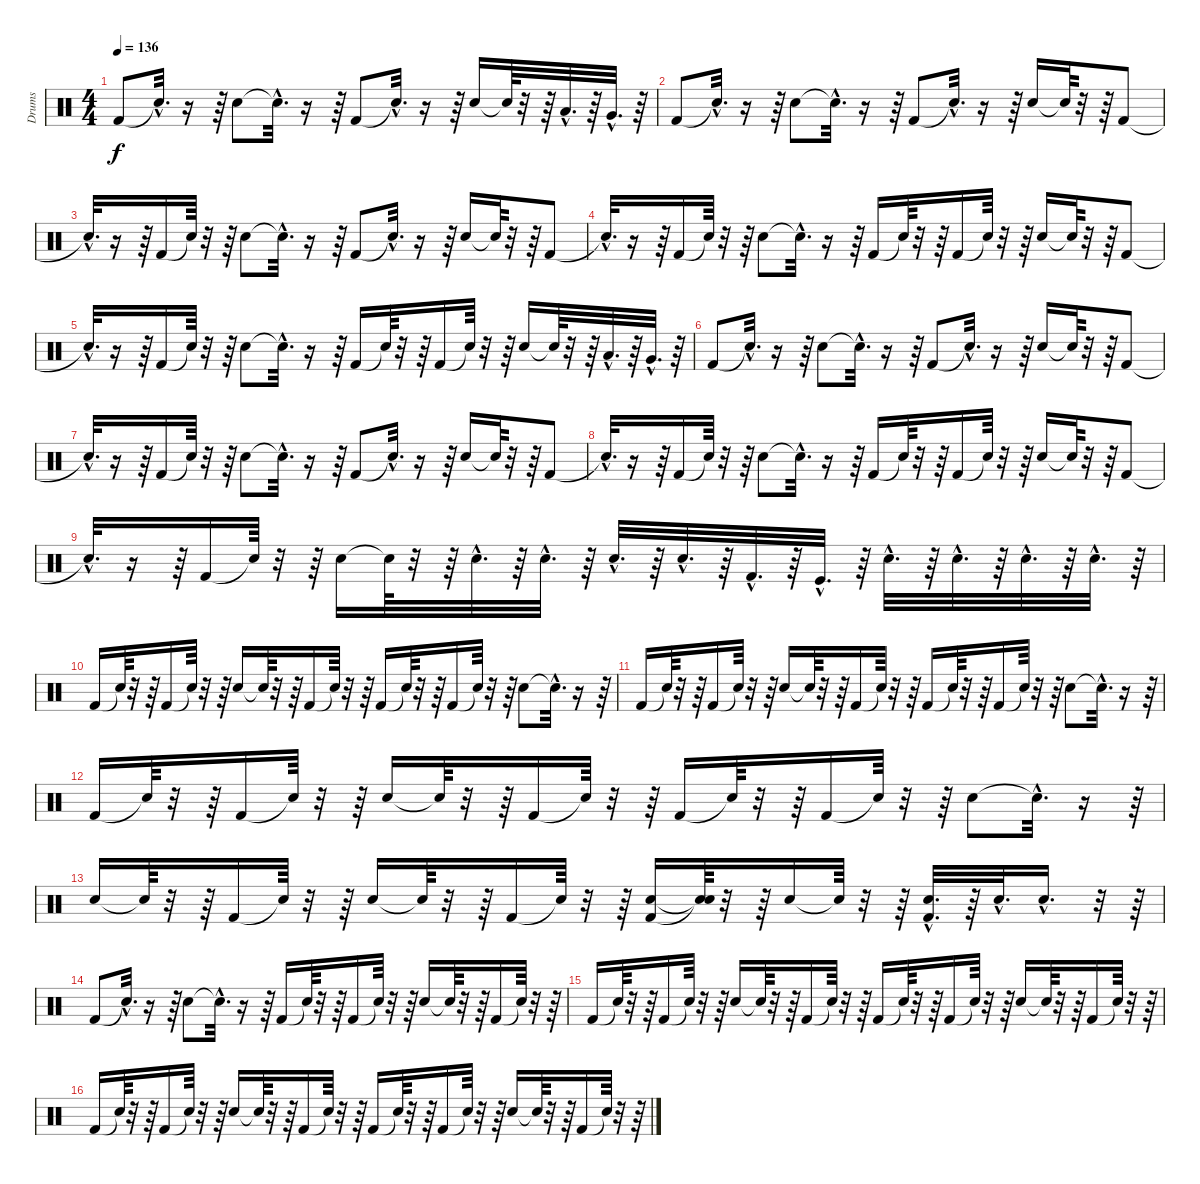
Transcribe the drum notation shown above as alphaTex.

\track ("Drums" "Drums") {instrument percussion}
\staff {score}
\articulation defaults
\ts (4 4)
\tempo 136
\clef neutral
\ks c "Kick (hit) 2".8{dy f} "Snare (hit)"{hac t}.32{d}
r.16 r.64 "Snare (hit) 2".8 "Snare (hit)"{hac t}.32{d} r.16 r.64 "Kick (hit) 2".8 "Snare (hit)"{hac t}.32{d} r.16 r.64 "Snare (hit) 2".16 "Snare (hit)"{t}.64 r.32 r.64 "Low Tom (hit)"{hac}.32{d} r.64 "Very Low Tom (hit)"{hac}.32{d} r.64 |
"Kick (hit) 2".8 "Snare (hit)"{hac t}.32{d} r.16 r.64 "Snare (hit) 2".8 "Snare (hit)"{hac t}.32{d} r.16 r.64 "Kick (hit) 2".8 "Snare (hit)"{hac t}.32{d} r.16 r.64 "Snare (hit) 2".16 "Snare (hit)"{t}.64 r.32 r.64 "Kick (hit) 2".8 |
"Snare (hit)"{hac t}.32{d} r.16 r.64 "Kick (hit) 2".16 "Snare (hit)"{t}.64 r.32 r.64 "Snare (hit) 2".8 "Snare (hit)"{hac t}.32{d} r.16 r.64 "Kick (hit) 2".8 "Snare (hit)"{hac t}.32{d} r.16 r.64 "Snare (hit) 2".16 "Snare (hit)"{t}.64 r.32 r.64 "Kick (hit) 2".8 |
"Snare (hit)"{hac t}.32{d} r.16 r.64 "Kick (hit) 2".16 "Snare (hit)"{t}.64 r.32 r.64 "Snare (hit) 2".8 "Snare (hit)"{hac t}.32{d} r.16 r.64 "Kick (hit) 2".16 "Snare (hit)"{t}.64 r.32 r.64 "Kick (hit) 2".16 "Snare (hit)"{t}.64 r.32 r.64 "Snare (hit) 2".16 "Snare (hit)"{t}.64 r.32 r.64 "Kick (hit) 2".8 |
"Snare (hit)"{hac t}.32{d} r.16 r.64 "Kick (hit) 2".16 "Snare (hit)"{t}.64 r.32 r.64 "Snare (hit) 2".8 "Snare (hit)"{hac t}.32{d} r.16 r.64 "Kick (hit) 2".16 "Snare (hit)"{t}.64 r.32 r.64 "Kick (hit) 2".16 "Snare (hit)"{t}.64 r.32 r.64 "Snare (hit) 2".16 "Snare (hit)"{t}.64 r.32 r.64 "Low Tom (hit)"{hac}.32{d} r.64 "Very Low Tom (hit)"{hac}.32{d} r.64 |
"Kick (hit) 2".8 "Snare (hit)"{hac t}.32{d} r.16 r.64 "Snare (hit) 2".8 "Snare (hit)"{hac t}.32{d} r.16 r.64 "Kick (hit) 2".8 "Snare (hit)"{hac t}.32{d} r.16 r.64 "Snare (hit) 2".16 "Snare (hit)"{t}.64 r.32 r.64 "Kick (hit) 2".8 |
"Snare (hit)"{hac t}.32{d} r.16 r.64 "Kick (hit) 2".16 "Snare (hit)"{t}.64 r.32 r.64 "Snare (hit) 2".8 "Snare (hit)"{hac t}.32{d} r.16 r.64 "Kick (hit) 2".8 "Snare (hit)"{hac t}.32{d} r.16 r.64 "Snare (hit) 2".16 "Snare (hit)"{t}.64 r.32 r.64 "Kick (hit) 2".8 |
"Snare (hit)"{hac t}.32{d} r.16 r.64 "Kick (hit) 2".16 "Snare (hit)"{t}.64 r.32 r.64 "Snare (hit) 2".8 "Snare (hit)"{hac t}.32{d} r.16 r.64 "Kick (hit) 2".16 "Snare (hit)"{t}.64 r.32 r.64 "Kick (hit) 2".16 "Snare (hit)"{t}.64 r.32 r.64 "Snare (hit) 2".16 "Snare (hit)"{t}.64 r.32 r.64 "Kick (hit) 2".8 |
"Snare (hit)"{hac t}.32{d} r.16 r.64 "Kick (hit) 2".16 "Snare (hit)"{t}.64 r.32 r.64 "Snare (hit) 2".16 "Snare (hit)"{t}.64 r.32 r.64 "Snare (hit) 2"{hac}.32{d} r.64 "Snare (hit) 2"{hac}.32{d} r.64 "Snare (hit) 2"{hac}.32{d} r.64 "Snare (hit) 2"{hac}.32{d} r.64 "Kick (hit) 2"{hac}.32{d} r.64 "Kick (hit)"{hac}.32{d} r.64 "Snare (hit) 2"{hac}.32{d} r.64 "Snare (hit) 2"{hac}.32{d} r.64 "Snare (hit) 2"{hac}.32{d} r.64 "Snare (hit) 2"{hac}.32{d} r.64 |
"Kick (hit) 2".16 "Snare (hit)"{t}.64 r.32 r.64 "Kick (hit) 2".16 "Snare (hit)"{t}.64 r.32 r.64 "Snare (hit) 2".16 "Snare (hit)"{t}.64 r.32 r.64 "Kick (hit) 2".16 "Snare (hit)"{t}.64 r.32 r.64 "Kick (hit) 2".16 "Snare (hit)"{t}.64 r.32 r.64 "Kick (hit) 2".16 "Snare (hit)"{t}.64 r.32 r.64 "Snare (hit) 2".8 "Snare (hit)"{hac t}.32{d} r.16 r.64 |
"Kick (hit) 2".16 "Snare (hit)"{t}.64 r.32 r.64 "Kick (hit) 2".16 "Snare (hit)"{t}.64 r.32 r.64 "Snare (hit) 2".16 "Snare (hit)"{t}.64 r.32 r.64 "Kick (hit) 2".16 "Snare (hit)"{t}.64 r.32 r.64 "Kick (hit) 2".16 "Snare (hit)"{t}.64 r.32 r.64 "Kick (hit) 2".16 "Snare (hit)"{t}.64 r.32 r.64 "Snare (hit) 2".8 "Snare (hit)"{hac t}.32{d} r.16 r.64 |
"Kick (hit) 2".16 "Snare (hit)"{t}.64 r.32 r.64 "Kick (hit) 2".16 "Snare (hit)"{t}.64 r.32 r.64 "Snare (hit) 2".16 "Snare (hit)"{t}.64 r.32 r.64 "Kick (hit) 2".16 "Snare (hit)"{t}.64 r.32 r.64 "Kick (hit) 2".16 "Snare (hit)"{t}.64 r.32 r.64 "Kick (hit) 2".16 "Snare (hit)"{t}.64 r.32 r.64 "Snare (hit) 2".8 "Snare (hit)"{hac t}.32{d} r.16 r.64 |
"Snare (hit) 2".16 "Snare (hit)"{t}.64 r.32 r.64 "Kick (hit) 2".16 "Snare (hit)"{t}.64 r.32 r.64 "Snare (hit) 2".16 "Snare (hit)"{t}.64 r.32 r.64 "Kick (hit) 2".16 "Snare (hit)"{t}.64 r.32 r.64 ("Kick (hit) 2" "Snare (hit) 2").16 ("Snare (hit)"{t} "Snare (hit)"{t}).64 r.32 r.64 "Snare (hit) 2".16 "Snare (hit)"{t}.64 r.32 r.64 ("Kick (hit) 2"{hac} "Snare (hit) 2"{hac}).32{d} r.64 "Snare (hit) 2"{hac}.32{d} "Snare (hit) 2"{hac}.16{d} r.32 r.64 |
"Kick (hit) 2".8 "Snare (hit)"{hac t}.32{d} r.16 r.64 "Snare (hit) 2".8 "Snare (hit)"{hac t}.32{d} r.16 r.64 "Kick (hit) 2".16 "Snare (hit)"{t}.64 r.32 r.64 "Kick (hit) 2".16 "Snare (hit)"{t}.64 r.32 r.64 "Snare (hit) 2".16 "Snare (hit)"{t}.64 r.32 r.64 "Kick (hit) 2".16 "Snare (hit)"{t}.64 r.32 r.64 |
"Kick (hit) 2".16 "Snare (hit)"{t}.64 r.32 r.64 "Kick (hit) 2".16 "Snare (hit)"{t}.64 r.32 r.64 "Snare (hit) 2".16 "Snare (hit)"{t}.64 r.32 r.64 "Kick (hit) 2".16 "Snare (hit)"{t}.64 r.32 r.64 "Kick (hit) 2".16 "Snare (hit)"{t}.64 r.32 r.64 "Kick (hit) 2".16 "Snare (hit)"{t}.64 r.32 r.64 "Snare (hit) 2".16 "Snare (hit)"{t}.64 r.32 r.64 "Kick (hit) 2".16 "Snare (hit)"{t}.64 r.32 r.64 |
"Kick (hit) 2".16 "Snare (hit)"{t}.64 r.32 r.64 "Kick (hit) 2".16 "Snare (hit)"{t}.64 r.32 r.64 "Snare (hit) 2".16 "Snare (hit)"{t}.64 r.32 r.64 "Kick (hit) 2".16 "Snare (hit)"{t}.64 r.32 r.64 "Kick (hit) 2".16 "Snare (hit)"{t}.64 r.32 r.64 "Kick (hit) 2".16 "Snare (hit)"{t}.64 r.32 r.64 "Snare (hit) 2".16 "Snare (hit)"{t}.64 r.32 r.64 "Kick (hit) 2".16 "Snare (hit)"{t}.64 r.32 r.64
